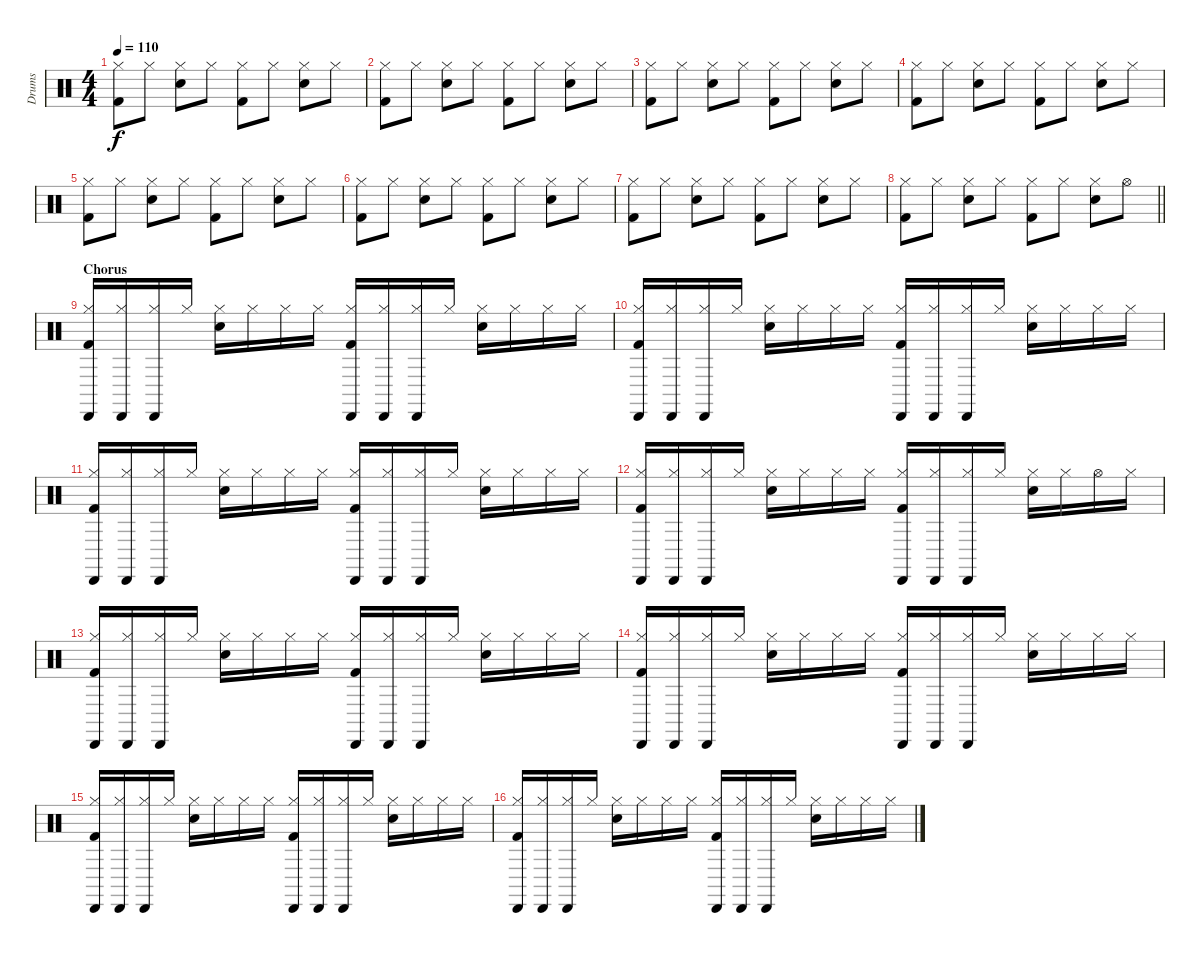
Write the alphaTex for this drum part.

\track ("Drums" "Drums") {instrument percussion}
\staff {score}
\articulation defaults
\ts (4 4)
\tempo 110
\clef neutral
\ks c
("Hi-Hat (closed)" "Kick (hit) 2").8{dy f} "Hi-Hat (closed)".8 ("Hi-Hat (closed)" "Electric Snare (hit)").8 "Hi-Hat (closed)".8 ("Hi-Hat (closed)" "Kick (hit) 2").8 "Hi-Hat (closed)".8 ("Hi-Hat (closed)" "Electric Snare (hit)").8 "Hi-Hat (closed)".8 |
("Hi-Hat (closed)" "Kick (hit) 2").8 "Hi-Hat (closed)".8 ("Hi-Hat (closed)" "Electric Snare (hit)").8 "Hi-Hat (closed)".8 ("Hi-Hat (closed)" "Kick (hit) 2").8 "Hi-Hat (closed)".8 ("Hi-Hat (closed)" "Electric Snare (hit)").8 "Hi-Hat (closed)".8 |
("Hi-Hat (closed)" "Kick (hit) 2").8 "Hi-Hat (closed)".8 ("Hi-Hat (closed)" "Electric Snare (hit)").8 "Hi-Hat (closed)".8 ("Hi-Hat (closed)" "Kick (hit) 2").8 "Hi-Hat (closed)".8 ("Hi-Hat (closed)" "Electric Snare (hit)").8 "Hi-Hat (closed)".8 |
("Hi-Hat (closed)" "Kick (hit) 2").8 "Hi-Hat (closed)".8 ("Hi-Hat (closed)" "Electric Snare (hit)").8 "Hi-Hat (closed)".8 ("Hi-Hat (closed)" "Kick (hit) 2").8 "Hi-Hat (closed)".8 ("Hi-Hat (closed)" "Electric Snare (hit)").8 "Hi-Hat (closed)".8 |
("Hi-Hat (closed)" "Kick (hit) 2").8 "Hi-Hat (closed)".8 ("Hi-Hat (closed)" "Electric Snare (hit)").8 "Hi-Hat (closed)".8 ("Hi-Hat (closed)" "Kick (hit) 2").8 "Hi-Hat (closed)".8 ("Hi-Hat (closed)" "Electric Snare (hit)").8 "Hi-Hat (closed)".8 |
("Hi-Hat (closed)" "Kick (hit) 2").8 "Hi-Hat (closed)".8 ("Hi-Hat (closed)" "Electric Snare (hit)").8 "Hi-Hat (closed)".8 ("Hi-Hat (closed)" "Kick (hit) 2").8 "Hi-Hat (closed)".8 ("Hi-Hat (closed)" "Electric Snare (hit)").8 "Hi-Hat (closed)".8 |
("Hi-Hat (closed)" "Kick (hit) 2").8 "Hi-Hat (closed)".8 ("Hi-Hat (closed)" "Electric Snare (hit)").8 "Hi-Hat (closed)".8 ("Hi-Hat (closed)" "Kick (hit) 2").8 "Hi-Hat (closed)".8 ("Hi-Hat (closed)" "Electric Snare (hit)").8 "Hi-Hat (closed)".8 |
\barLineRight lightlight
("Hi-Hat (closed)" "Kick (hit) 2").8 "Hi-Hat (closed)".8 ("Hi-Hat (closed)" "Electric Snare (hit)").8 "Hi-Hat (closed)".8 ("Hi-Hat (closed)" "Kick (hit) 2").8 "Hi-Hat (closed)".8 ("Hi-Hat (closed)" "Electric Snare (hit)").8 "Hi-Hat (open)".8 |
\section ("" "Chorus")
("Cabasa (hit)" "Kick (hit) 2" "Hi-Hat (closed)").16 ("Cabasa (hit)" "Hi-Hat (closed)").16 ("Cabasa (hit)" "Hi-Hat (closed)").16 "Hi-Hat (closed)".16 ("Electric Snare (hit)" "Hi-Hat (closed)").16 "Hi-Hat (closed)".16 "Hi-Hat (closed)".16 "Hi-Hat (closed)".16 ("Cabasa (hit)" "Kick (hit) 2" "Hi-Hat (closed)").16 ("Cabasa (hit)" "Hi-Hat (closed)").16 ("Cabasa (hit)" "Hi-Hat (closed)").16 "Hi-Hat (closed)".16 ("Electric Snare (hit)" "Hi-Hat (closed)").16 "Hi-Hat (closed)".16 "Hi-Hat (closed)".16 "Hi-Hat (closed)".16 |
("Cabasa (hit)" "Kick (hit) 2" "Hi-Hat (closed)").16 ("Cabasa (hit)" "Hi-Hat (closed)").16 ("Cabasa (hit)" "Hi-Hat (closed)").16 "Hi-Hat (closed)".16 ("Electric Snare (hit)" "Hi-Hat (closed)").16 "Hi-Hat (closed)".16 "Hi-Hat (closed)".16 "Hi-Hat (closed)".16 ("Cabasa (hit)" "Kick (hit) 2" "Hi-Hat (closed)").16 ("Cabasa (hit)" "Hi-Hat (closed)").16 ("Cabasa (hit)" "Hi-Hat (closed)").16 "Hi-Hat (closed)".16 ("Electric Snare (hit)" "Hi-Hat (closed)").16 "Hi-Hat (closed)".16 "Hi-Hat (closed)".16 "Hi-Hat (closed)".16 |
("Cabasa (hit)" "Kick (hit) 2" "Hi-Hat (closed)").16 ("Cabasa (hit)" "Hi-Hat (closed)").16 ("Cabasa (hit)" "Hi-Hat (closed)").16 "Hi-Hat (closed)".16 ("Electric Snare (hit)" "Hi-Hat (closed)").16 "Hi-Hat (closed)".16 "Hi-Hat (closed)".16 "Hi-Hat (closed)".16 ("Cabasa (hit)" "Kick (hit) 2" "Hi-Hat (closed)").16 ("Cabasa (hit)" "Hi-Hat (closed)").16 ("Cabasa (hit)" "Hi-Hat (closed)").16 "Hi-Hat (closed)".16 ("Electric Snare (hit)" "Hi-Hat (closed)").16 "Hi-Hat (closed)".16 "Hi-Hat (closed)".16 "Hi-Hat (closed)".16 |
("Cabasa (hit)" "Kick (hit) 2" "Hi-Hat (closed)").16 ("Cabasa (hit)" "Hi-Hat (closed)").16 ("Cabasa (hit)" "Hi-Hat (closed)").16 "Hi-Hat (closed)".16 ("Electric Snare (hit)" "Hi-Hat (closed)").16 "Hi-Hat (closed)".16 "Hi-Hat (closed)".16 "Hi-Hat (closed)".16 ("Cabasa (hit)" "Kick (hit) 2" "Hi-Hat (closed)").16 ("Cabasa (hit)" "Hi-Hat (closed)").16 ("Cabasa (hit)" "Hi-Hat (closed)").16 "Hi-Hat (closed)".16 ("Electric Snare (hit)" "Hi-Hat (closed)").16 "Hi-Hat (closed)".16 "Hi-Hat (open)".16 "Hi-Hat (closed)".16 |
("Cabasa (hit)" "Kick (hit) 2" "Hi-Hat (closed)").16 ("Cabasa (hit)" "Hi-Hat (closed)").16 ("Cabasa (hit)" "Hi-Hat (closed)").16 "Hi-Hat (closed)".16 ("Electric Snare (hit)" "Hi-Hat (closed)").16 "Hi-Hat (closed)".16 "Hi-Hat (closed)".16 "Hi-Hat (closed)".16 ("Cabasa (hit)" "Kick (hit) 2" "Hi-Hat (closed)").16 ("Cabasa (hit)" "Hi-Hat (closed)").16 ("Cabasa (hit)" "Hi-Hat (closed)").16 "Hi-Hat (closed)".16 ("Electric Snare (hit)" "Hi-Hat (closed)").16 "Hi-Hat (closed)".16 "Hi-Hat (closed)".16 "Hi-Hat (closed)".16 |
("Cabasa (hit)" "Kick (hit) 2" "Hi-Hat (closed)").16 ("Cabasa (hit)" "Hi-Hat (closed)").16 ("Cabasa (hit)" "Hi-Hat (closed)").16 "Hi-Hat (closed)".16 ("Electric Snare (hit)" "Hi-Hat (closed)").16 "Hi-Hat (closed)".16 "Hi-Hat (closed)".16 "Hi-Hat (closed)".16 ("Cabasa (hit)" "Kick (hit) 2" "Hi-Hat (closed)").16 ("Cabasa (hit)" "Hi-Hat (closed)").16 ("Cabasa (hit)" "Hi-Hat (closed)").16 "Hi-Hat (closed)".16 ("Electric Snare (hit)" "Hi-Hat (closed)").16 "Hi-Hat (closed)".16 "Hi-Hat (closed)".16 "Hi-Hat (closed)".16 |
("Cabasa (hit)" "Kick (hit) 2" "Hi-Hat (closed)").16 ("Cabasa (hit)" "Hi-Hat (closed)").16 ("Cabasa (hit)" "Hi-Hat (closed)").16 "Hi-Hat (closed)".16 ("Electric Snare (hit)" "Hi-Hat (closed)").16 "Hi-Hat (closed)".16 "Hi-Hat (closed)".16 "Hi-Hat (closed)".16 ("Cabasa (hit)" "Kick (hit) 2" "Hi-Hat (closed)").16 ("Cabasa (hit)" "Hi-Hat (closed)").16 ("Cabasa (hit)" "Hi-Hat (closed)").16 "Hi-Hat (closed)".16 ("Electric Snare (hit)" "Hi-Hat (closed)").16 "Hi-Hat (closed)".16 "Hi-Hat (closed)".16 "Hi-Hat (closed)".16 |
("Cabasa (hit)" "Kick (hit) 2" "Hi-Hat (closed)").16 ("Cabasa (hit)" "Hi-Hat (closed)").16 ("Cabasa (hit)" "Hi-Hat (closed)").16 "Hi-Hat (closed)".16 ("Electric Snare (hit)" "Hi-Hat (closed)").16 "Hi-Hat (closed)".16 "Hi-Hat (closed)".16 "Hi-Hat (closed)".16 ("Cabasa (hit)" "Kick (hit) 2" "Hi-Hat (closed)").16 ("Cabasa (hit)" "Hi-Hat (closed)").16 ("Cabasa (hit)" "Hi-Hat (closed)").16 "Hi-Hat (closed)".16 ("Electric Snare (hit)" "Hi-Hat (closed)").16 "Hi-Hat (closed)".16 "Hi-Hat (closed)".16 "Hi-Hat (closed)".16
